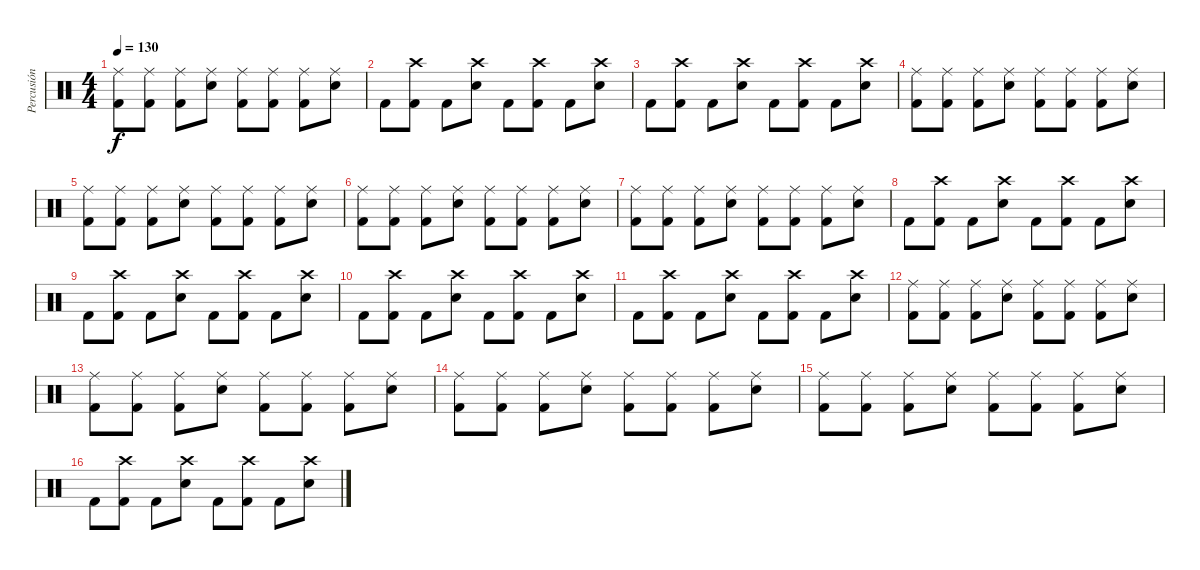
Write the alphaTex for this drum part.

\track ("Percusión" "Percusión") {instrument percussion}
\staff {score}
\articulation defaults
\ts (4 4)
\tempo 130
\clef neutral
\ks c
("Kick (hit) 2" "Ride (middle)").8{dy f} ("Kick (hit) 2" "Ride (middle)").8 ("Kick (hit) 2" "Ride (middle)").8 ("Snare (hit) 2" "Ride (middle)").8 ("Kick (hit) 2" "Ride (middle)").8 ("Kick (hit) 2" "Ride (middle)").8 ("Kick (hit) 2" "Ride (middle)").8 ("Snare (hit) 2" "Ride (middle)").8 |
"Kick (hit) 2".8 ("Kick (hit) 2" "Crash high (hit)").8 "Kick (hit) 2".8 ("Snare (hit) 2" "Crash high (hit)").8 "Kick (hit) 2".8 ("Kick (hit) 2" "Crash high (hit)").8 "Kick (hit) 2".8 ("Snare (hit) 2" "Crash high (hit)").8 |
"Kick (hit) 2".8 ("Kick (hit) 2" "Crash high (hit)").8 "Kick (hit) 2".8 ("Snare (hit) 2" "Crash high (hit)").8 "Kick (hit) 2".8 ("Kick (hit) 2" "Crash high (hit)").8 "Kick (hit) 2".8 ("Snare (hit) 2" "Crash high (hit)").8 |
("Kick (hit) 2" "Ride (middle)").8 ("Kick (hit) 2" "Ride (middle)").8 ("Kick (hit) 2" "Ride (middle)").8 ("Snare (hit) 2" "Ride (middle)").8 ("Kick (hit) 2" "Ride (middle)").8 ("Kick (hit) 2" "Ride (middle)").8 ("Kick (hit) 2" "Ride (middle)").8 ("Snare (hit) 2" "Ride (middle)").8 |
("Kick (hit) 2" "Ride (middle)").8 ("Kick (hit) 2" "Ride (middle)").8 ("Kick (hit) 2" "Ride (middle)").8 ("Snare (hit) 2" "Ride (middle)").8 ("Kick (hit) 2" "Ride (middle)").8 ("Kick (hit) 2" "Ride (middle)").8 ("Kick (hit) 2" "Ride (middle)").8 ("Snare (hit) 2" "Ride (middle)").8 |
("Kick (hit) 2" "Ride (middle)").8 ("Kick (hit) 2" "Ride (middle)").8 ("Kick (hit) 2" "Ride (middle)").8 ("Snare (hit) 2" "Ride (middle)").8 ("Kick (hit) 2" "Ride (middle)").8 ("Kick (hit) 2" "Ride (middle)").8 ("Kick (hit) 2" "Ride (middle)").8 ("Snare (hit) 2" "Ride (middle)").8 |
("Kick (hit) 2" "Ride (middle)").8 ("Kick (hit) 2" "Ride (middle)").8 ("Kick (hit) 2" "Ride (middle)").8 ("Snare (hit) 2" "Ride (middle)").8 ("Kick (hit) 2" "Ride (middle)").8 ("Kick (hit) 2" "Ride (middle)").8 ("Kick (hit) 2" "Ride (middle)").8 ("Snare (hit) 2" "Ride (middle)").8 |
"Kick (hit) 2".8 ("Kick (hit) 2" "Crash high (hit)").8 "Kick (hit) 2".8 ("Snare (hit) 2" "Crash high (hit)").8 "Kick (hit) 2".8 ("Kick (hit) 2" "Crash high (hit)").8 "Kick (hit) 2".8 ("Snare (hit) 2" "Crash high (hit)").8 |
"Kick (hit) 2".8 ("Kick (hit) 2" "Crash high (hit)").8 "Kick (hit) 2".8 ("Snare (hit) 2" "Crash high (hit)").8 "Kick (hit) 2".8 ("Kick (hit) 2" "Crash high (hit)").8 "Kick (hit) 2".8 ("Snare (hit) 2" "Crash high (hit)").8 |
"Kick (hit) 2".8 ("Kick (hit) 2" "Crash high (hit)").8 "Kick (hit) 2".8 ("Snare (hit) 2" "Crash high (hit)").8 "Kick (hit) 2".8 ("Kick (hit) 2" "Crash high (hit)").8 "Kick (hit) 2".8 ("Snare (hit) 2" "Crash high (hit)").8 |
"Kick (hit) 2".8 ("Kick (hit) 2" "Crash high (hit)").8 "Kick (hit) 2".8 ("Snare (hit) 2" "Crash high (hit)").8 "Kick (hit) 2".8 ("Kick (hit) 2" "Crash high (hit)").8 "Kick (hit) 2".8 ("Snare (hit) 2" "Crash high (hit)").8 |
("Kick (hit) 2" "Ride (middle)").8 ("Kick (hit) 2" "Ride (middle)").8 ("Kick (hit) 2" "Ride (middle)").8 ("Snare (hit) 2" "Ride (middle)").8 ("Kick (hit) 2" "Ride (middle)").8 ("Kick (hit) 2" "Ride (middle)").8 ("Kick (hit) 2" "Ride (middle)").8 ("Snare (hit) 2" "Ride (middle)").8 |
("Kick (hit) 2" "Ride (middle)").8 ("Kick (hit) 2" "Ride (middle)").8 ("Kick (hit) 2" "Ride (middle)").8 ("Snare (hit) 2" "Ride (middle)").8 ("Kick (hit) 2" "Ride (middle)").8 ("Kick (hit) 2" "Ride (middle)").8 ("Kick (hit) 2" "Ride (middle)").8 ("Snare (hit) 2" "Ride (middle)").8 |
("Kick (hit) 2" "Ride (middle)").8 ("Kick (hit) 2" "Ride (middle)").8 ("Kick (hit) 2" "Ride (middle)").8 ("Snare (hit) 2" "Ride (middle)").8 ("Kick (hit) 2" "Ride (middle)").8 ("Kick (hit) 2" "Ride (middle)").8 ("Kick (hit) 2" "Ride (middle)").8 ("Snare (hit) 2" "Ride (middle)").8 |
("Kick (hit) 2" "Ride (middle)").8 ("Kick (hit) 2" "Ride (middle)").8 ("Kick (hit) 2" "Ride (middle)").8 ("Snare (hit) 2" "Ride (middle)").8 ("Kick (hit) 2" "Ride (middle)").8 ("Kick (hit) 2" "Ride (middle)").8 ("Kick (hit) 2" "Ride (middle)").8 ("Snare (hit) 2" "Ride (middle)").8 |
"Kick (hit) 2".8 ("Kick (hit) 2" "Crash high (hit)").8 "Kick (hit) 2".8 ("Snare (hit) 2" "Crash high (hit)").8 "Kick (hit) 2".8 ("Kick (hit) 2" "Crash high (hit)").8 "Kick (hit) 2".8 ("Snare (hit) 2" "Crash high (hit)").8
